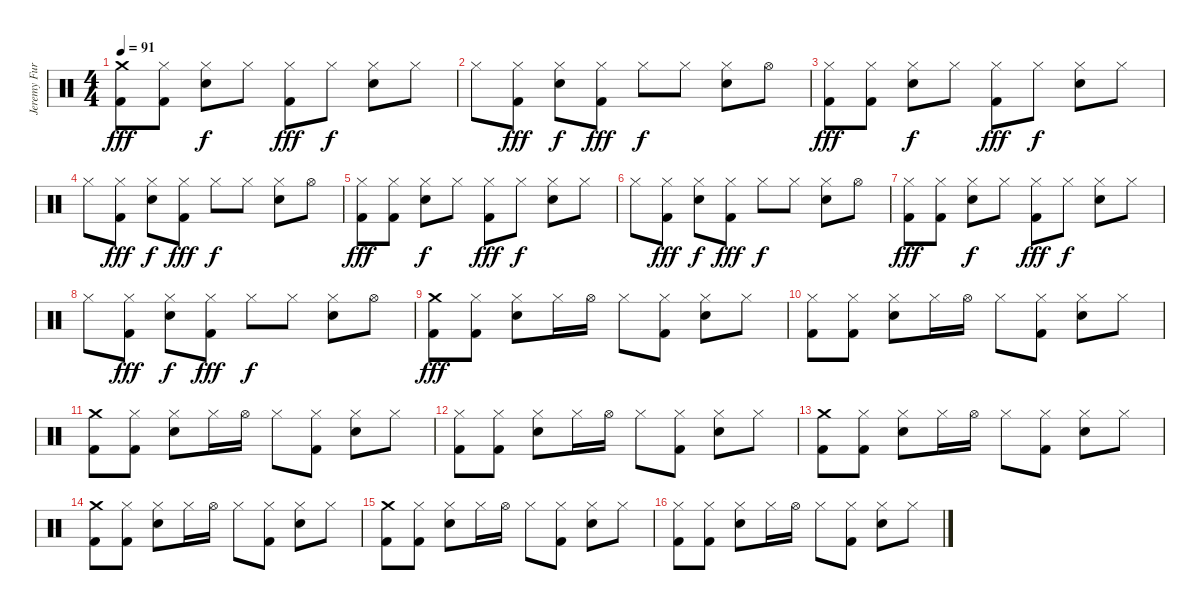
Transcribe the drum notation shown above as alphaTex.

\track ("Jeremy Furstenfeld - drums" "Jeremy Fur") {instrument percussion}
\staff {score}
\articulation defaults
\ts (4 4)
\tempo 91
\clef neutral
\ks c
("Crash medium (hit)" "Kick (hit) 2").8{dy fff} ("Hi-Hat (closed)" "Kick (hit) 2").8 ("Hi-Hat (closed)" "Electric Snare (hit)").8{dy f} "Hi-Hat (closed)".8 ("Hi-Hat (closed)" "Kick (hit) 2").8{dy fff} "Hi-Hat (closed)".8{dy f} ("Hi-Hat (closed)" "Electric Snare (hit)").8 "Hi-Hat (closed)".8 |
"Hi-Hat (closed)".8 ("Hi-Hat (closed)" "Kick (hit) 2").8{dy fff} ("Hi-Hat (closed)" "Electric Snare (hit)").8{dy f} ("Hi-Hat (closed)" "Kick (hit) 2").8{dy fff} "Hi-Hat (closed)".8{dy f} "Hi-Hat (closed)".8 ("Hi-Hat (closed)" "Electric Snare (hit)").8 "Hi-Hat (open)".8 |
("Hi-Hat (closed)" "Kick (hit) 2").8{dy fff} ("Hi-Hat (closed)" "Kick (hit) 2").8 ("Hi-Hat (closed)" "Electric Snare (hit)").8{dy f} "Hi-Hat (closed)".8 ("Hi-Hat (closed)" "Kick (hit) 2").8{dy fff} "Hi-Hat (closed)".8{dy f} ("Hi-Hat (closed)" "Electric Snare (hit)").8 "Hi-Hat (closed)".8 |
"Hi-Hat (closed)".8 ("Hi-Hat (closed)" "Kick (hit) 2").8{dy fff} ("Hi-Hat (closed)" "Electric Snare (hit)").8{dy f} ("Hi-Hat (closed)" "Kick (hit) 2").8{dy fff} "Hi-Hat (closed)".8{dy f} "Hi-Hat (closed)".8 ("Hi-Hat (closed)" "Electric Snare (hit)").8 "Hi-Hat (open)".8 |
("Hi-Hat (closed)" "Kick (hit) 2").8{dy fff} ("Hi-Hat (closed)" "Kick (hit) 2").8 ("Hi-Hat (closed)" "Electric Snare (hit)").8{dy f} "Hi-Hat (closed)".8 ("Hi-Hat (closed)" "Kick (hit) 2").8{dy fff} "Hi-Hat (closed)".8{dy f} ("Hi-Hat (closed)" "Electric Snare (hit)").8 "Hi-Hat (closed)".8 |
"Hi-Hat (closed)".8 ("Hi-Hat (closed)" "Kick (hit) 2").8{dy fff} ("Hi-Hat (closed)" "Electric Snare (hit)").8{dy f} ("Hi-Hat (closed)" "Kick (hit) 2").8{dy fff} "Hi-Hat (closed)".8{dy f} "Hi-Hat (closed)".8 ("Hi-Hat (closed)" "Electric Snare (hit)").8 "Hi-Hat (open)".8 |
("Hi-Hat (closed)" "Kick (hit) 2").8{dy fff} ("Hi-Hat (closed)" "Kick (hit) 2").8 ("Hi-Hat (closed)" "Electric Snare (hit)").8{dy f} "Hi-Hat (closed)".8 ("Hi-Hat (closed)" "Kick (hit) 2").8{dy fff} "Hi-Hat (closed)".8{dy f} ("Hi-Hat (closed)" "Electric Snare (hit)").8 "Hi-Hat (closed)".8 |
"Hi-Hat (closed)".8 ("Hi-Hat (closed)" "Kick (hit) 2").8{dy fff} ("Hi-Hat (closed)" "Electric Snare (hit)").8{dy f} ("Hi-Hat (closed)" "Kick (hit) 2").8{dy fff} "Hi-Hat (closed)".8{dy f} "Hi-Hat (closed)".8 ("Hi-Hat (closed)" "Electric Snare (hit)").8 "Hi-Hat (open)".8 |
("Crash medium (hit)" "Kick (hit) 2").8{dy fff} ("Hi-Hat (closed)" "Kick (hit) 2").8 ("Hi-Hat (closed)" "Electric Snare (hit)").8 "Hi-Hat (closed)".16 "Hi-Hat (open)".16 "Hi-Hat (closed)".8 ("Hi-Hat (closed)" "Kick (hit) 2").8 ("Hi-Hat (closed)" "Electric Snare (hit)").8 "Hi-Hat (closed)".8 |
("Hi-Hat (closed)" "Kick (hit) 2").8 ("Hi-Hat (closed)" "Kick (hit) 2").8 ("Hi-Hat (closed)" "Electric Snare (hit)").8 "Hi-Hat (closed)".16 "Hi-Hat (open)".16 "Hi-Hat (closed)".8 ("Hi-Hat (closed)" "Kick (hit) 2").8 ("Hi-Hat (closed)" "Electric Snare (hit)").8 "Hi-Hat (closed)".8 |
("Crash medium (hit)" "Kick (hit) 2").8 ("Hi-Hat (closed)" "Kick (hit) 2").8 ("Hi-Hat (closed)" "Electric Snare (hit)").8 "Hi-Hat (closed)".16 "Hi-Hat (open)".16 "Hi-Hat (closed)".8 ("Hi-Hat (closed)" "Kick (hit) 2").8 ("Hi-Hat (closed)" "Electric Snare (hit)").8 "Hi-Hat (closed)".8 |
("Hi-Hat (closed)" "Kick (hit) 2").8 ("Hi-Hat (closed)" "Kick (hit) 2").8 ("Hi-Hat (closed)" "Electric Snare (hit)").8 "Hi-Hat (closed)".16 "Hi-Hat (open)".16 "Hi-Hat (closed)".8 ("Hi-Hat (closed)" "Kick (hit) 2").8 ("Hi-Hat (closed)" "Electric Snare (hit)").8 "Hi-Hat (closed)".8 |
("Crash medium (hit)" "Kick (hit) 2").8 ("Hi-Hat (closed)" "Kick (hit) 2").8 ("Hi-Hat (closed)" "Electric Snare (hit)").8 "Hi-Hat (closed)".16 "Hi-Hat (open)".16 "Hi-Hat (closed)".8 ("Hi-Hat (closed)" "Kick (hit) 2").8 ("Hi-Hat (closed)" "Electric Snare (hit)").8 "Hi-Hat (closed)".8 |
("Crash medium (hit)" "Kick (hit) 2").8 ("Hi-Hat (closed)" "Kick (hit) 2").8 ("Hi-Hat (closed)" "Electric Snare (hit)").8 "Hi-Hat (closed)".16 "Hi-Hat (open)".16 "Hi-Hat (closed)".8 ("Hi-Hat (closed)" "Kick (hit) 2").8 ("Hi-Hat (closed)" "Electric Snare (hit)").8 "Hi-Hat (closed)".8 |
("Crash medium (hit)" "Kick (hit) 2").8 ("Hi-Hat (closed)" "Kick (hit) 2").8 ("Hi-Hat (closed)" "Electric Snare (hit)").8 "Hi-Hat (closed)".16 "Hi-Hat (open)".16 "Hi-Hat (closed)".8 ("Hi-Hat (closed)" "Kick (hit) 2").8 ("Hi-Hat (closed)" "Electric Snare (hit)").8 "Hi-Hat (closed)".8 |
("Hi-Hat (closed)" "Kick (hit) 2").8 ("Hi-Hat (closed)" "Kick (hit) 2").8 ("Hi-Hat (closed)" "Electric Snare (hit)").8 "Hi-Hat (closed)".16 "Hi-Hat (open)".16 "Hi-Hat (closed)".8 ("Hi-Hat (closed)" "Kick (hit) 2").8 ("Hi-Hat (closed)" "Electric Snare (hit)").8 "Hi-Hat (closed)".8
